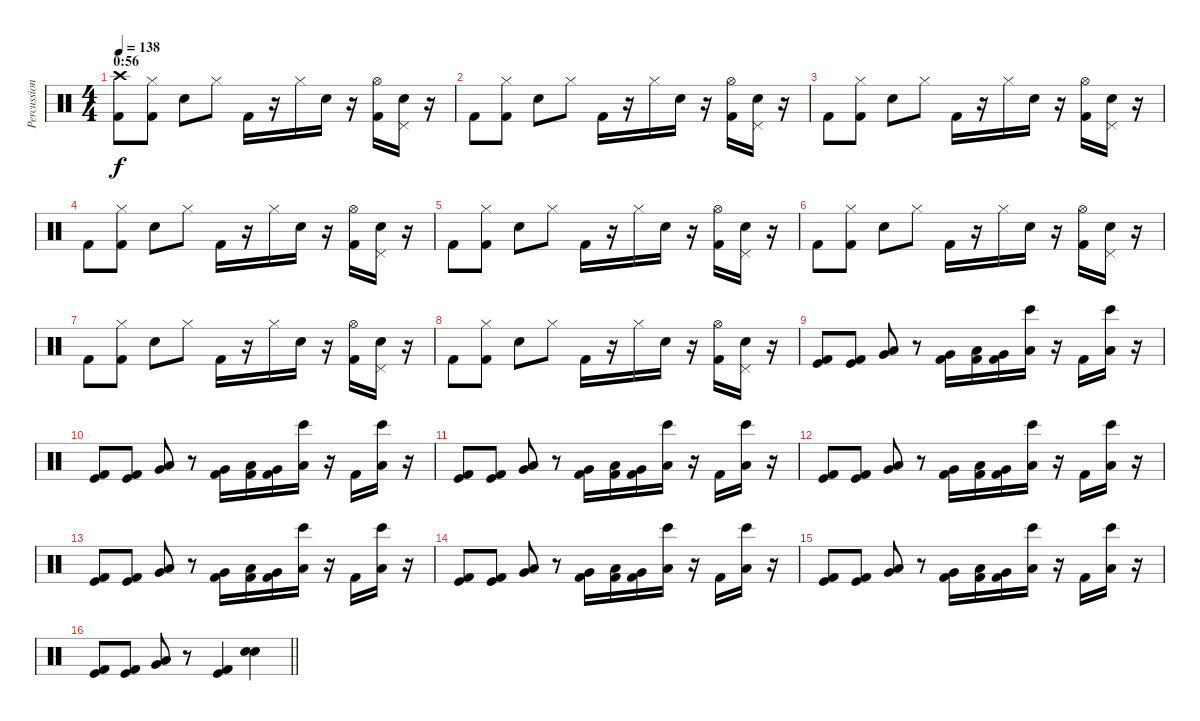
\track ("Percussion" "Percussion") {instrument percussion}
\staff {score}
\articulation defaults
\ts (4 4)
\section ("" "0:56")
\tempo 138
\clef neutral
\ks c
("Crash high (hit)" "Kick (hit) 2").8{dy f} ("Hi-Hat (closed)" "Kick (hit) 2").8 "Electric Snare (hit)".8 "Hi-Hat (closed)".8 "Kick (hit) 2".16 r.16 "Hi-Hat (closed)".16 "Electric Snare (hit)".16 r.16 ("Hi-Hat (open)" "Kick (hit) 2").16 ("Pedal Hi-Hat (hit)" "Electric Snare (hit)").16 r.16 |
"Kick (hit) 2".8 ("Hi-Hat (closed)" "Kick (hit) 2").8 "Electric Snare (hit)".8 "Hi-Hat (closed)".8 "Kick (hit) 2".16 r.16 "Hi-Hat (closed)".16 "Electric Snare (hit)".16 r.16 ("Hi-Hat (open)" "Kick (hit) 2").16 ("Pedal Hi-Hat (hit)" "Electric Snare (hit)").16 r.16 |
"Kick (hit) 2".8 ("Hi-Hat (closed)" "Kick (hit) 2").8 "Electric Snare (hit)".8 "Hi-Hat (closed)".8 "Kick (hit) 2".16 r.16 "Hi-Hat (closed)".16 "Electric Snare (hit)".16 r.16 ("Hi-Hat (open)" "Kick (hit) 2").16 ("Pedal Hi-Hat (hit)" "Electric Snare (hit)").16 r.16 |
"Kick (hit) 2".8 ("Hi-Hat (closed)" "Kick (hit) 2").8 "Electric Snare (hit)".8 "Hi-Hat (closed)".8 "Kick (hit) 2".16 r.16 "Hi-Hat (closed)".16 "Electric Snare (hit)".16 r.16 ("Hi-Hat (open)" "Kick (hit) 2").16 ("Pedal Hi-Hat (hit)" "Electric Snare (hit)").16 r.16 |
"Kick (hit) 2".8 ("Hi-Hat (closed)" "Kick (hit) 2").8 "Electric Snare (hit)".8 "Hi-Hat (closed)".8 "Kick (hit) 2".16 r.16 "Hi-Hat (closed)".16 "Electric Snare (hit)".16 r.16 ("Hi-Hat (open)" "Kick (hit) 2").16 ("Pedal Hi-Hat (hit)" "Electric Snare (hit)").16 r.16 |
"Kick (hit) 2".8 ("Hi-Hat (closed)" "Kick (hit) 2").8 "Electric Snare (hit)".8 "Hi-Hat (closed)".8 "Kick (hit) 2".16 r.16 "Hi-Hat (closed)".16 "Electric Snare (hit)".16 r.16 ("Hi-Hat (open)" "Kick (hit) 2").16 ("Pedal Hi-Hat (hit)" "Electric Snare (hit)").16 r.16 |
"Kick (hit) 2".8 ("Hi-Hat (closed)" "Kick (hit) 2").8 "Electric Snare (hit)".8 "Hi-Hat (closed)".8 "Kick (hit) 2".16 r.16 "Hi-Hat (closed)".16 "Electric Snare (hit)".16 r.16 ("Hi-Hat (open)" "Kick (hit) 2").16 ("Pedal Hi-Hat (hit)" "Electric Snare (hit)").16 r.16 |
"Kick (hit) 2".8 ("Hi-Hat (closed)" "Kick (hit) 2").8 "Electric Snare (hit)".8 "Hi-Hat (closed)".8 "Kick (hit) 2".16 r.16 "Hi-Hat (closed)".16 "Electric Snare (hit)".16 r.16 ("Hi-Hat (open)" "Kick (hit) 2").16 ("Pedal Hi-Hat (hit)" "Electric Snare (hit)").16 r.16 |
("Kick (hit)" "Kick (hit) 2").8 ("Kick (hit)" "Kick (hit) 2").8 ("Low Floor Tom (hit)" "Very Low Tom (hit)").8 r.8 ("Very Low Tom (hit)" "Kick (hit) 2").16 ("Low Floor Tom (hit)" "Kick (hit) 2").16 ("Very Low Tom (hit)" "Kick (hit) 2").16 ("Low Tom (hit)" "Bongo High (hit)").16 r.16 "Kick (hit) 2".16 ("Low Tom (hit)" "Bongo High (hit)").16 r.16 |
("Kick (hit)" "Kick (hit) 2").8 ("Kick (hit)" "Kick (hit) 2").8 ("Low Floor Tom (hit)" "Very Low Tom (hit)").8 r.8 ("Very Low Tom (hit)" "Kick (hit) 2").16 ("Low Floor Tom (hit)" "Kick (hit) 2").16 ("Very Low Tom (hit)" "Kick (hit) 2").16 ("Low Tom (hit)" "Bongo High (hit)").16 r.16 "Kick (hit) 2".16 ("Low Tom (hit)" "Bongo High (hit)").16 r.16 |
("Kick (hit)" "Kick (hit) 2").8 ("Kick (hit)" "Kick (hit) 2").8 ("Low Floor Tom (hit)" "Very Low Tom (hit)").8 r.8 ("Very Low Tom (hit)" "Kick (hit) 2").16 ("Low Floor Tom (hit)" "Kick (hit) 2").16 ("Very Low Tom (hit)" "Kick (hit) 2").16 ("Low Tom (hit)" "Bongo High (hit)").16 r.16 "Kick (hit) 2".16 ("Low Tom (hit)" "Bongo High (hit)").16 r.16 |
("Kick (hit)" "Kick (hit) 2").8 ("Kick (hit)" "Kick (hit) 2").8 ("Low Floor Tom (hit)" "Very Low Tom (hit)").8 r.8 ("Very Low Tom (hit)" "Kick (hit) 2").16 ("Low Floor Tom (hit)" "Kick (hit) 2").16 ("Very Low Tom (hit)" "Kick (hit) 2").16 ("Low Tom (hit)" "Bongo High (hit)").16 r.16 "Kick (hit) 2".16 ("Low Tom (hit)" "Bongo High (hit)").16 r.16 |
("Kick (hit)" "Kick (hit) 2").8 ("Kick (hit)" "Kick (hit) 2").8 ("Low Floor Tom (hit)" "Very Low Tom (hit)").8 r.8 ("Very Low Tom (hit)" "Kick (hit) 2").16 ("Low Floor Tom (hit)" "Kick (hit) 2").16 ("Very Low Tom (hit)" "Kick (hit) 2").16 ("Low Tom (hit)" "Bongo High (hit)").16 r.16 "Kick (hit) 2".16 ("Low Tom (hit)" "Bongo High (hit)").16 r.16 |
("Kick (hit)" "Kick (hit) 2").8 ("Kick (hit)" "Kick (hit) 2").8 ("Low Floor Tom (hit)" "Very Low Tom (hit)").8 r.8 ("Very Low Tom (hit)" "Kick (hit) 2").16 ("Low Floor Tom (hit)" "Kick (hit) 2").16 ("Very Low Tom (hit)" "Kick (hit) 2").16 ("Low Tom (hit)" "Bongo High (hit)").16 r.16 "Kick (hit) 2".16 ("Low Tom (hit)" "Bongo High (hit)").16 r.16 |
("Kick (hit)" "Kick (hit) 2").8 ("Kick (hit)" "Kick (hit) 2").8 ("Low Floor Tom (hit)" "Very Low Tom (hit)").8 r.8 ("Very Low Tom (hit)" "Kick (hit) 2").16 ("Low Floor Tom (hit)" "Kick (hit) 2").16 ("Very Low Tom (hit)" "Kick (hit) 2").16 ("Low Tom (hit)" "Bongo High (hit)").16 r.16 "Kick (hit) 2".16 ("Low Tom (hit)" "Bongo High (hit)").16 r.16 |
\barLineRight lightlight
("Kick (hit)" "Kick (hit) 2").8 ("Kick (hit)" "Kick (hit) 2").8 ("Low Floor Tom (hit)" "Very Low Tom (hit)").8 r.8 ("Kick (hit)" "Kick (hit) 2").4 ("Electric Snare (hit)" "Electric Snare (hit)").4
